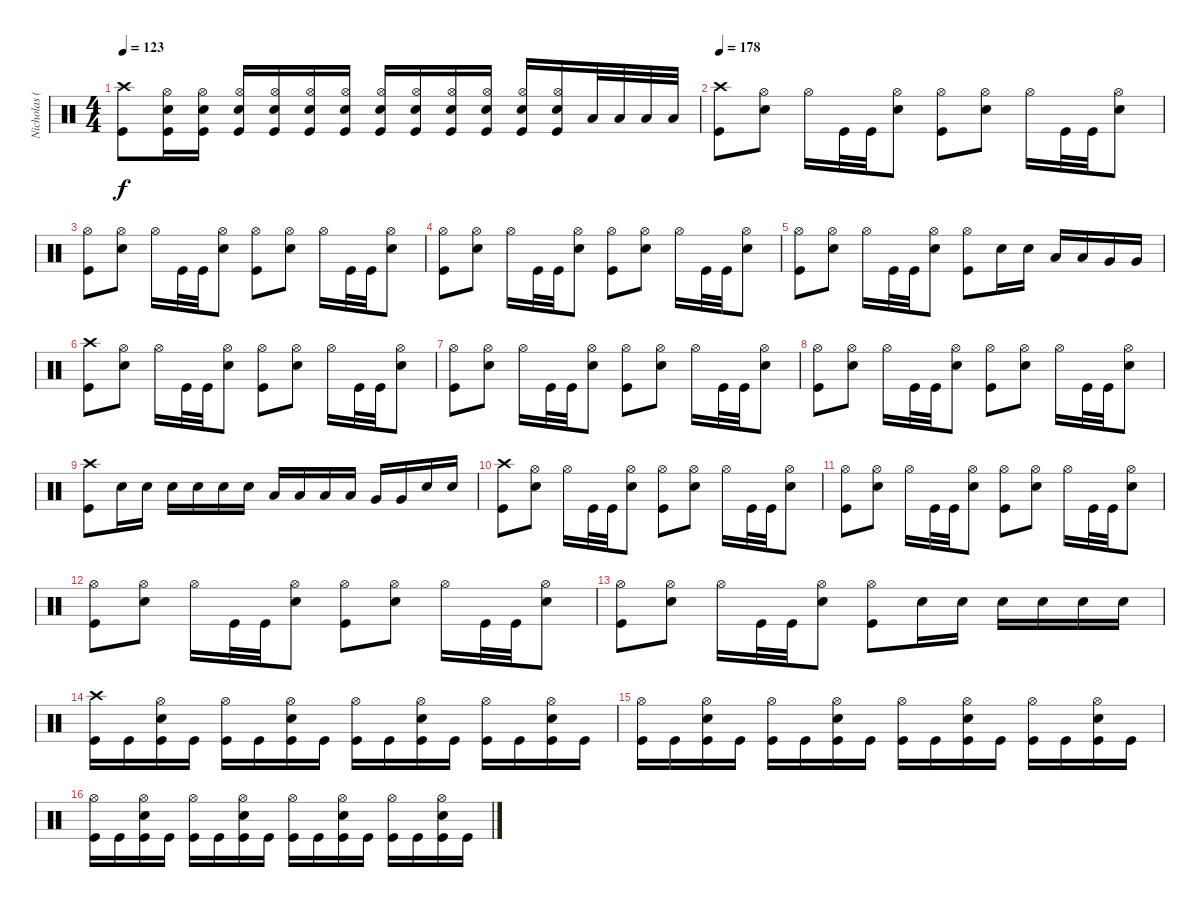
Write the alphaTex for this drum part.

\track ("Nicholas (Drums)" "Nicholas (") {instrument percussion}
\staff {score}
\articulation defaults
\ts (4 4)
\tempo 123
\clef neutral
\ks c
("Crash high (hit)" "Kick (hit)").8{dy f} ("Hi-Hat (open)" "Electric Snare (hit)" "Kick (hit)").16 ("Hi-Hat (open)" "Electric Snare (hit)" "Kick (hit)").16 ("Hi-Hat (open)" "Electric Snare (hit)" "Kick (hit)").16 ("Hi-Hat (open)" "Electric Snare (hit)" "Kick (hit)").16 ("Hi-Hat (open)" "Electric Snare (hit)" "Kick (hit)").16 ("Hi-Hat (open)" "Electric Snare (hit)" "Kick (hit)").16 ("Hi-Hat (open)" "Electric Snare (hit)" "Kick (hit)").16 ("Hi-Hat (open)" "Electric Snare (hit)" "Kick (hit)").16 ("Hi-Hat (open)" "Electric Snare (hit)" "Kick (hit)").16 ("Hi-Hat (open)" "Electric Snare (hit)" "Kick (hit)").16 ("Hi-Hat (open)" "Electric Snare (hit)" "Kick (hit)").16 ("Hi-Hat (open)" "Electric Snare (hit)" "Kick (hit)").16 "Low Tom (hit)".32 "Low Tom (hit)".32 "Low Tom (hit)".32 "Low Tom (hit)".32 |
\tempo 178
("Crash high (hit)" "Kick (hit)").8 ("Hi-Hat (open)" "Electric Snare (hit)").8 "Hi-Hat (open)".16 "Kick (hit)".32 "Kick (hit)".32 ("Hi-Hat (open)" "Electric Snare (hit)").8 ("Hi-Hat (open)" "Kick (hit)").8 ("Hi-Hat (open)" "Electric Snare (hit)").8 "Hi-Hat (open)".16 "Kick (hit)".32 "Kick (hit)".32 ("Hi-Hat (open)" "Electric Snare (hit)").8 |
("Hi-Hat (open)" "Kick (hit)").8 ("Hi-Hat (open)" "Electric Snare (hit)").8 "Hi-Hat (open)".16 "Kick (hit)".32 "Kick (hit)".32 ("Hi-Hat (open)" "Electric Snare (hit)").8 ("Hi-Hat (open)" "Kick (hit)").8 ("Hi-Hat (open)" "Electric Snare (hit)").8 "Hi-Hat (open)".16 "Kick (hit)".32 "Kick (hit)".32 ("Hi-Hat (open)" "Electric Snare (hit)").8 |
("Hi-Hat (open)" "Kick (hit)").8 ("Hi-Hat (open)" "Electric Snare (hit)").8 "Hi-Hat (open)".16 "Kick (hit)".32 "Kick (hit)".32 ("Hi-Hat (open)" "Electric Snare (hit)").8 ("Hi-Hat (open)" "Kick (hit)").8 ("Hi-Hat (open)" "Electric Snare (hit)").8 "Hi-Hat (open)".16 "Kick (hit)".32 "Kick (hit)".32 ("Hi-Hat (open)" "Electric Snare (hit)").8 |
("Hi-Hat (open)" "Kick (hit)").8 ("Hi-Hat (open)" "Electric Snare (hit)").8 "Hi-Hat (open)".16 "Kick (hit)".32 "Kick (hit)".32 ("Hi-Hat (open)" "Electric Snare (hit)").8 ("Hi-Hat (open)" "Kick (hit)").8 "Electric Snare (hit)".16 "Electric Snare (hit)".16 "Low Tom (hit)".16 "Low Tom (hit)".16 "Very Low Tom (hit)".16 "Very Low Tom (hit)".16 |
("Crash high (hit)" "Kick (hit)").8 ("Hi-Hat (open)" "Electric Snare (hit)").8 "Hi-Hat (open)".16 "Kick (hit)".32 "Kick (hit)".32 ("Hi-Hat (open)" "Electric Snare (hit)").8 ("Hi-Hat (open)" "Kick (hit)").8 ("Hi-Hat (open)" "Electric Snare (hit)").8 "Hi-Hat (open)".16 "Kick (hit)".32 "Kick (hit)".32 ("Hi-Hat (open)" "Electric Snare (hit)").8 |
("Hi-Hat (open)" "Kick (hit)").8 ("Hi-Hat (open)" "Electric Snare (hit)").8 "Hi-Hat (open)".16 "Kick (hit)".32 "Kick (hit)".32 ("Hi-Hat (open)" "Electric Snare (hit)").8 ("Hi-Hat (open)" "Kick (hit)").8 ("Hi-Hat (open)" "Electric Snare (hit)").8 "Hi-Hat (open)".16 "Kick (hit)".32 "Kick (hit)".32 ("Hi-Hat (open)" "Electric Snare (hit)").8 |
("Hi-Hat (open)" "Kick (hit)").8 ("Hi-Hat (open)" "Electric Snare (hit)").8 "Hi-Hat (open)".16 "Kick (hit)".32 "Kick (hit)".32 ("Hi-Hat (open)" "Electric Snare (hit)").8 ("Hi-Hat (open)" "Kick (hit)").8 ("Hi-Hat (open)" "Electric Snare (hit)").8 "Hi-Hat (open)".16 "Kick (hit)".32 "Kick (hit)".32 ("Hi-Hat (open)" "Electric Snare (hit)").8 |
("Crash high (hit)" "Kick (hit)").8 "Electric Snare (hit)".16 "Electric Snare (hit)".16 "Electric Snare (hit)".16 "Electric Snare (hit)".16 "Electric Snare (hit)".16 "Electric Snare (hit)".16 "Low Tom (hit)".16 "Low Tom (hit)".16 "Low Tom (hit)".16 "Low Tom (hit)".16 "Very Low Tom (hit)".16 "Very Low Tom (hit)".16 "Electric Snare (hit)".16 "Electric Snare (hit)".16 |
("Crash high (hit)" "Kick (hit)").8 ("Hi-Hat (open)" "Electric Snare (hit)").8 "Hi-Hat (open)".16 "Kick (hit)".32 "Kick (hit)".32 ("Hi-Hat (open)" "Electric Snare (hit)").8 ("Hi-Hat (open)" "Kick (hit)").8 ("Hi-Hat (open)" "Electric Snare (hit)").8 "Hi-Hat (open)".16 "Kick (hit)".32 "Kick (hit)".32 ("Hi-Hat (open)" "Electric Snare (hit)").8 |
("Hi-Hat (open)" "Kick (hit)").8 ("Hi-Hat (open)" "Electric Snare (hit)").8 "Hi-Hat (open)".16 "Kick (hit)".32 "Kick (hit)".32 ("Hi-Hat (open)" "Electric Snare (hit)").8 ("Hi-Hat (open)" "Kick (hit)").8 ("Hi-Hat (open)" "Electric Snare (hit)").8 "Hi-Hat (open)".16 "Kick (hit)".32 "Kick (hit)".32 ("Hi-Hat (open)" "Electric Snare (hit)").8 |
("Hi-Hat (open)" "Kick (hit)").8 ("Hi-Hat (open)" "Electric Snare (hit)").8 "Hi-Hat (open)".16 "Kick (hit)".32 "Kick (hit)".32 ("Hi-Hat (open)" "Electric Snare (hit)").8 ("Hi-Hat (open)" "Kick (hit)").8 ("Hi-Hat (open)" "Electric Snare (hit)").8 "Hi-Hat (open)".16 "Kick (hit)".32 "Kick (hit)".32 ("Hi-Hat (open)" "Electric Snare (hit)").8 |
("Hi-Hat (open)" "Kick (hit)").8 ("Hi-Hat (open)" "Electric Snare (hit)").8 "Hi-Hat (open)".16 "Kick (hit)".32 "Kick (hit)".32 ("Hi-Hat (open)" "Electric Snare (hit)").8 ("Hi-Hat (open)" "Kick (hit)").8 "Electric Snare (hit)".16 "Electric Snare (hit)".16 "Electric Snare (hit)".16 "Electric Snare (hit)".16 "Electric Snare (hit)".16 "Electric Snare (hit)".16 |
("Crash high (hit)" "Kick (hit)").16 "Kick (hit)".16 ("Hi-Hat (open)" "Electric Snare (hit)" "Kick (hit)").16 "Kick (hit)".16 ("Hi-Hat (open)" "Kick (hit)").16 "Kick (hit)".16 ("Hi-Hat (open)" "Electric Snare (hit)" "Kick (hit)").16 "Kick (hit)".16 ("Hi-Hat (open)" "Kick (hit)").16 "Kick (hit)".16 ("Hi-Hat (open)" "Electric Snare (hit)" "Kick (hit)").16 "Kick (hit)".16 ("Hi-Hat (open)" "Kick (hit)").16 "Kick (hit)".16 ("Hi-Hat (open)" "Electric Snare (hit)" "Kick (hit)").16 "Kick (hit)".16 |
("Hi-Hat (open)" "Kick (hit)").16 "Kick (hit)".16 ("Hi-Hat (open)" "Electric Snare (hit)" "Kick (hit)").16 "Kick (hit)".16 ("Hi-Hat (open)" "Kick (hit)").16 "Kick (hit)".16 ("Hi-Hat (open)" "Electric Snare (hit)" "Kick (hit)").16 "Kick (hit)".16 ("Hi-Hat (open)" "Kick (hit)").16 "Kick (hit)".16 ("Hi-Hat (open)" "Electric Snare (hit)" "Kick (hit)").16 "Kick (hit)".16 ("Hi-Hat (open)" "Kick (hit)").16 "Kick (hit)".16 ("Hi-Hat (open)" "Electric Snare (hit)" "Kick (hit)").16 "Kick (hit)".16 |
("Hi-Hat (open)" "Kick (hit)").16 "Kick (hit)".16 ("Hi-Hat (open)" "Electric Snare (hit)" "Kick (hit)").16 "Kick (hit)".16 ("Hi-Hat (open)" "Kick (hit)").16 "Kick (hit)".16 ("Hi-Hat (open)" "Electric Snare (hit)" "Kick (hit)").16 "Kick (hit)".16 ("Hi-Hat (open)" "Kick (hit)").16 "Kick (hit)".16 ("Hi-Hat (open)" "Electric Snare (hit)" "Kick (hit)").16 "Kick (hit)".16 ("Hi-Hat (open)" "Kick (hit)").16 "Kick (hit)".16 ("Hi-Hat (open)" "Electric Snare (hit)" "Kick (hit)").16 "Kick (hit)".16
